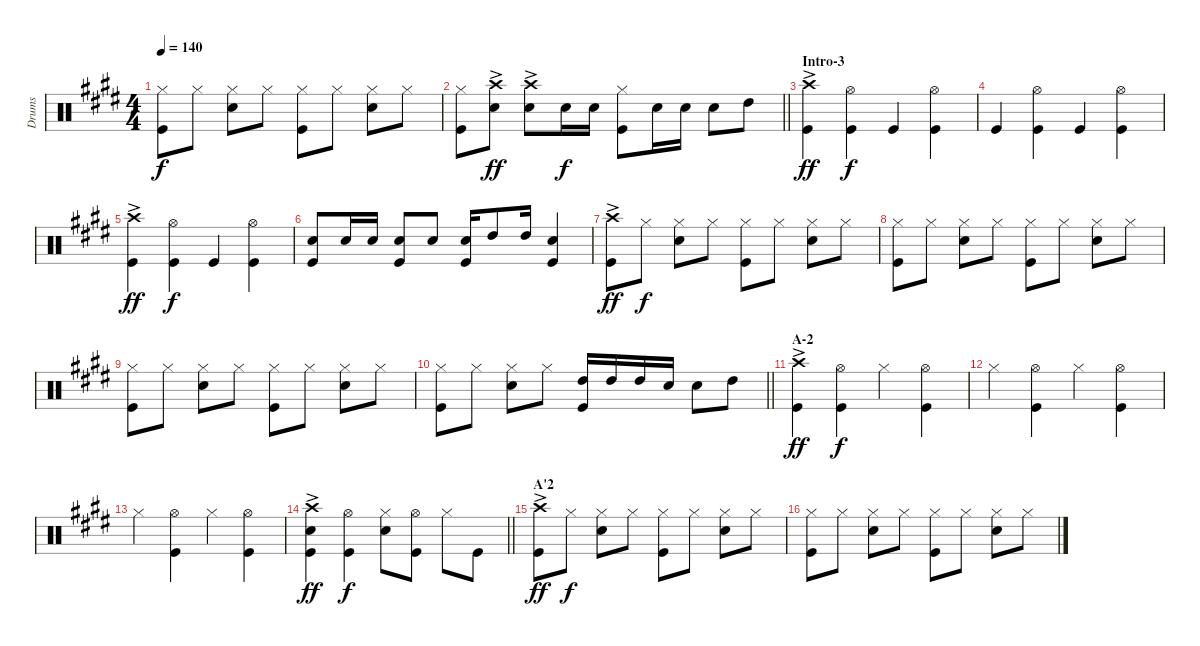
\track ("Drums" "Drums") {instrument percussion}
\staff {score}
\articulation defaults
\ts (4 4)
\tempo 140
\clef neutral
\ks e
("Hi-Hat (closed)" "Kick (hit)").8{dy f} "Hi-Hat (closed)".8 ("Snare (hit) 2" "Hi-Hat (closed)").8 "Hi-Hat (closed)".8 ("Kick (hit)" "Hi-Hat (closed)").8 "Hi-Hat (closed)".8 ("Hi-Hat (closed)" "Snare (hit) 2").8 "Hi-Hat (closed)".8 |
\barLineRight lightlight
("Kick (hit)" "Hi-Hat (closed)").8 ("Snare (hit) 2" "Crash high (hit)"{ac}).8{dy ff} ("Crash high (hit)"{ac} "Snare (hit) 2").8 "Snare (hit) 2".16{dy f} "Snare (hit) 2".16 ("Hi-Hat (closed)" "Kick (hit)").8 "Snare (hit) 2".16 "Snare (hit) 2".16 "Snare (hit) 2".8 "High Tom (hit)".8 |
\section ("" "Intro-3")
("Crash high (hit)"{ac} "Kick (hit)").4{dy ff} ("Hi-Hat (open)" "Kick (hit)").4{dy f} "Kick (hit)".4 ("Hi-Hat (open)" "Kick (hit)").4 |
"Kick (hit)".4 ("Kick (hit)" "Hi-Hat (open)").4 "Kick (hit)".4 ("Kick (hit)" "Hi-Hat (open)").4 |
("Kick (hit)" "Crash high (hit)"{ac}).4{dy ff} ("Kick (hit)" "Hi-Hat (open)").4{dy f} "Kick (hit)".4 ("Kick (hit)" "Hi-Hat (open)").4 |
("Kick (hit)" "Snare (hit) 2").8 "Snare (hit) 2".16 "Snare (hit) 2".16 ("Snare (hit) 2" "Kick (hit)").8 "Snare (hit) 2".8 ("Kick (hit)" "Snare (hit) 2").16 "High Tom (hit)".8 "High Tom (hit)".16 ("Kick (hit)" "Snare (hit) 2").4 |
("Crash high (hit)"{ac} "Kick (hit)").8{dy ff} "Hi-Hat (closed)".8{dy f} ("Hi-Hat (closed)" "Snare (hit) 2").8 "Hi-Hat (closed)".8 ("Hi-Hat (closed)" "Kick (hit)").8 "Hi-Hat (closed)".8 ("Hi-Hat (closed)" "Snare (hit) 2").8 "Hi-Hat (closed)".8 |
("Hi-Hat (closed)" "Kick (hit)").8 "Hi-Hat (closed)".8 ("Hi-Hat (closed)" "Snare (hit) 2").8 "Hi-Hat (closed)".8 ("Hi-Hat (closed)" "Kick (hit)").8 "Hi-Hat (closed)".8 ("Hi-Hat (closed)" "Snare (hit) 2").8 "Hi-Hat (closed)".8 |
("Hi-Hat (closed)" "Kick (hit)").8 "Hi-Hat (closed)".8 ("Hi-Hat (closed)" "Snare (hit) 2").8 "Hi-Hat (closed)".8 ("Hi-Hat (closed)" "Kick (hit)").8 "Hi-Hat (closed)".8 ("Hi-Hat (closed)" "Snare (hit) 2").8 "Hi-Hat (closed)".8 |
\barLineRight lightlight
("Kick (hit)" "Hi-Hat (closed)").8 "Hi-Hat (closed)".8 ("Hi-Hat (closed)" "Snare (hit) 2").8 "Hi-Hat (closed)".8 ("Kick (hit)" "High Tom (hit)").16 "High Tom (hit)".16 "High Tom (hit)".16 "Snare (hit) 2".16 "Snare (hit) 2".8 "High Tom (hit)".8 |
\section ("" "A-2")
("Crash high (hit)"{ac} "Kick (hit)").4{dy ff} ("Hi-Hat (open)" "Kick (hit)").4{dy f} "Hi-Hat (closed)".4 ("Hi-Hat (open)" "Kick (hit)").4 |
"Hi-Hat (closed)".4 ("Hi-Hat (open)" "Kick (hit)").4 "Hi-Hat (closed)".4 ("Hi-Hat (open)" "Kick (hit)").4 |
"Hi-Hat (closed)".4 ("Hi-Hat (open)" "Kick (hit)").4 "Hi-Hat (closed)".4 ("Hi-Hat (open)" "Kick (hit)").4 |
\barLineRight lightlight
("Crash high (hit)"{ac} "Snare (hit) 2" "Kick (hit)").4{dy ff} ("Hi-Hat (open)" "Kick (hit)").4{dy f} ("Hi-Hat (closed)" "Snare (hit) 2").8 ("Hi-Hat (open)" "Kick (hit)").8 "Hi-Hat (closed)".8 "Kick (hit)".8 |
\section ("" "A'2")
("Crash high (hit)"{ac} "Kick (hit)").8{dy ff} "Hi-Hat (closed)".8{dy f} ("Hi-Hat (closed)" "Snare (hit) 2").8 "Hi-Hat (closed)".8 ("Kick (hit)" "Hi-Hat (closed)").8 "Hi-Hat (closed)".8 ("Snare (hit) 2" "Hi-Hat (closed)").8 "Hi-Hat (closed)".8 |
("Kick (hit)" "Hi-Hat (closed)").8 "Hi-Hat (closed)".8 ("Snare (hit) 2" "Hi-Hat (closed)").8 "Hi-Hat (closed)".8 ("Kick (hit)" "Hi-Hat (closed)").8 "Hi-Hat (closed)".8 ("Snare (hit) 2" "Hi-Hat (closed)").8 "Hi-Hat (closed)".8
